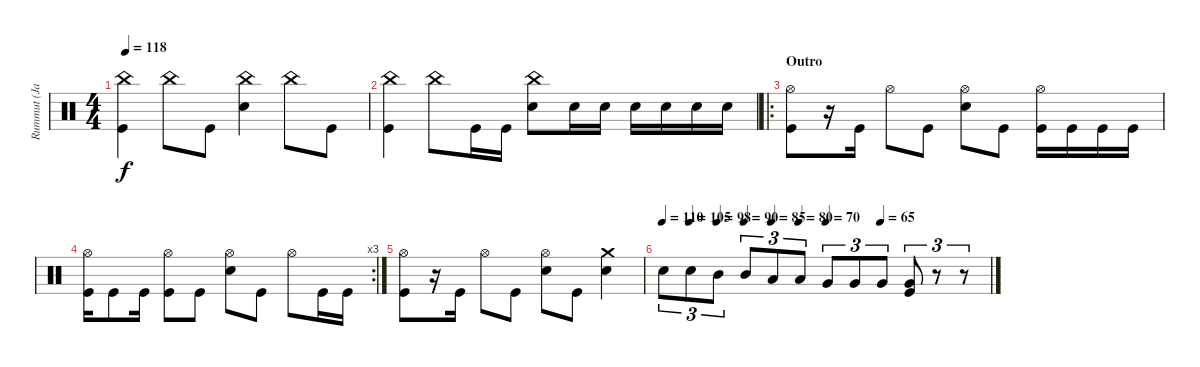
\track ("Rummut (Janne)" "Rummut (Ja") {instrument percussion}
\staff {score}
\articulation defaults
\ts (4 4)
\tempo 118
\clef neutral
\ks c
("China (hit)" "Kick (hit)").4{dy f} "China (hit)".8 "Kick (hit)".8 ("China (hit)" "Snare (hit) 2").4 "China (hit)".8 "Kick (hit)".8 |
("China (hit)" "Kick (hit)").4 "China (hit)".8 "Kick (hit)".16 "Kick (hit)".16 ("China (hit)" "Snare (hit) 2").8 "Snare (hit) 2".16 "Snare (hit) 2".16 "Snare (hit) 2".16 "Snare (hit) 2".16 "Snare (hit) 2".16 "Snare (hit) 2".16 |
\ro
\section ("" "Outro")
("Hi-Hat (open)" "Kick (hit)").8 r.16 "Kick (hit)".16 "Hi-Hat (open)".8 "Kick (hit)".8 ("Hi-Hat (open)" "Snare (hit) 2").8 "Kick (hit)".8 ("Hi-Hat (open)" "Kick (hit)").16 "Kick (hit)".16 "Kick (hit)".16 "Kick (hit)".16 |
\rc 3
("Hi-Hat (open)" "Kick (hit)").16 "Kick (hit)".8 "Kick (hit)".16 ("Hi-Hat (open)" "Kick (hit)").8 "Kick (hit)".8 ("Hi-Hat (open)" "Snare (hit) 2").8 "Kick (hit)".8 "Hi-Hat (open)".8 "Kick (hit)".16 "Kick (hit)".16 |
("Hi-Hat (open)" "Kick (hit)").8 r.16 "Kick (hit)".16 "Hi-Hat (open)".8 "Kick (hit)".8 ("Hi-Hat (open)" "Snare (hit) 2").8 "Kick (hit)".8 ("Crash medium (hit)" "Snare (hit) 2").4 |
\tempo 110
\tempo (105 0.08333333333333333)
\tempo (98 0.16666666666666666)
\tempo (90 0.25)
\tempo (85 0.3333333333333333)
\tempo (80 0.4166666666666667)
\tempo (70 0.5)
\tempo (65 0.6666666666666666)
"Snare (hit) 2".8{tu (3 2)} "Snare (hit) 2".8{tu (3 2)} "Mid Tom (hit)".8{tu (3 2)} "Mid Tom (hit)".8{tu (3 2)} "Low Tom (hit)".8{tu (3 2)} "Low Tom (hit)".8{tu (3 2)} "Very Low Tom (hit)".8{tu (3 2)} "Very Low Tom (hit)".8{tu (3 2)} "Very Low Tom (hit)".8{tu (3 2)} ("Very Low Tom (hit)" "Kick (hit)").8{tu (3 2)} r.8{tu (3 2)} r.8{tu (3 2)}
